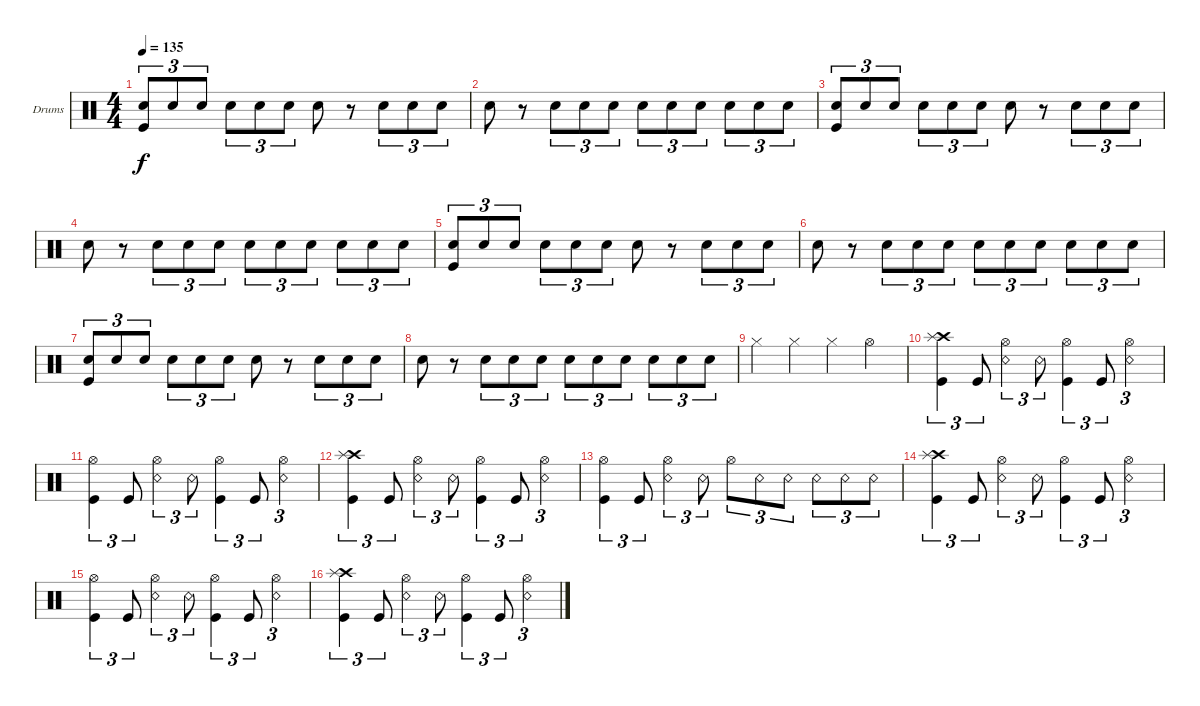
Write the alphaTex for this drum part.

\bracketExtendMode groupsimilarinstruments
\firstSystemTrackNameOrientation horizontal
\otherSystemsTrackNameOrientation horizontal
\track ("Drumkit" "Drums") {instrument percussion}
\staff {score}
\articulation defaults
\ts (4 4)
\tempo 135
\clef neutral
\scale
0.333333
\ks c
("Snare (hit) 2" "Kick (hit)").8{tu (3 2) dy f} "Snare (hit) 2".8{tu (3 2)} "Snare (hit) 2".8{tu (3 2)} "Snare (hit) 2".8{tu (3 2)} "Snare (hit) 2".8{tu (3 2)} "Snare (hit) 2".8{tu (3 2)} "Snare (hit) 2".8 r.8 "Snare (hit) 2".8{tu (3 2)} "Snare (hit) 2".8{tu (3 2)} "Snare (hit) 2".8{tu (3 2)} |
\scale
0.333333 "Snare (hit) 2".8 r.8 "Snare (hit) 2".8{tu (3 2)} "Snare (hit) 2".8{tu (3 2)} "Snare (hit) 2".8{tu (3 2)} "Snare (hit) 2".8{tu (3 2)} "Snare (hit) 2".8{tu (3 2)} "Snare (hit) 2".8{tu (3 2)} "Snare (hit) 2".8{tu (3 2)} "Snare (hit) 2".8{tu (3 2)} "Snare (hit) 2".8{tu (3 2)} |
\scale
0.333333 ("Snare (hit) 2" "Kick (hit)").8{tu (3 2)} "Snare (hit) 2".8{tu (3 2)} "Snare (hit) 2".8{tu (3 2)} "Snare (hit) 2".8{tu (3 2)} "Snare (hit) 2".8{tu (3 2)} "Snare (hit) 2".8{tu (3 2)} "Snare (hit) 2".8 r.8 "Snare (hit) 2".8{tu (3 2)} "Snare (hit) 2".8{tu (3 2)} "Snare (hit) 2".8{tu (3 2)} |
\scale
0.333333 "Snare (hit) 2".8 r.8 "Snare (hit) 2".8{tu (3 2)} "Snare (hit) 2".8{tu (3 2)} "Snare (hit) 2".8{tu (3 2)} "Snare (hit) 2".8{tu (3 2)} "Snare (hit) 2".8{tu (3 2)} "Snare (hit) 2".8{tu (3 2)} "Snare (hit) 2".8{tu (3 2)} "Snare (hit) 2".8{tu (3 2)} "Snare (hit) 2".8{tu (3 2)} |
\scale
0.333333 ("Snare (hit) 2" "Kick (hit)").8{tu (3 2)} "Snare (hit) 2".8{tu (3 2)} "Snare (hit) 2".8{tu (3 2)} "Snare (hit) 2".8{tu (3 2)} "Snare (hit) 2".8{tu (3 2)} "Snare (hit) 2".8{tu (3 2)} "Snare (hit) 2".8 r.8 "Snare (hit) 2".8{tu (3 2)} "Snare (hit) 2".8{tu (3 2)} "Snare (hit) 2".8{tu (3 2)} |
\scale
0.333333 "Snare (hit) 2".8 r.8 "Snare (hit) 2".8{tu (3 2)} "Snare (hit) 2".8{tu (3 2)} "Snare (hit) 2".8{tu (3 2)} "Snare (hit) 2".8{tu (3 2)} "Snare (hit) 2".8{tu (3 2)} "Snare (hit) 2".8{tu (3 2)} "Snare (hit) 2".8{tu (3 2)} "Snare (hit) 2".8{tu (3 2)} "Snare (hit) 2".8{tu (3 2)} |
\scale
0.333333 ("Snare (hit) 2" "Kick (hit)").8{tu (3 2)} "Snare (hit) 2".8{tu (3 2)} "Snare (hit) 2".8{tu (3 2)} "Snare (hit) 2".8{tu (3 2)} "Snare (hit) 2".8{tu (3 2)} "Snare (hit) 2".8{tu (3 2)} "Snare (hit) 2".8 r.8 "Snare (hit) 2".8{tu (3 2)} "Snare (hit) 2".8{tu (3 2)} "Snare (hit) 2".8{tu (3 2)} |
\scale
0.333333 "Snare (hit) 2".8 r.8 "Snare (hit) 2".8{tu (3 2)} "Snare (hit) 2".8{tu (3 2)} "Snare (hit) 2".8{tu (3 2)} "Snare (hit) 2".8{tu (3 2)} "Snare (hit) 2".8{tu (3 2)} "Snare (hit) 2".8{tu (3 2)} "Snare (hit) 2".8{tu (3 2)} "Snare (hit) 2".8{tu (3 2)} "Snare (hit) 2".8{tu (3 2)} |
\scale
0.333333 "Hi-Hat (closed)".4 "Hi-Hat (closed)".4 "Hi-Hat (closed)".4 "Hi-Hat (open)".4 |
\scale
0.333333 ("Kick (hit)" "Crash high (hit)" "Splash (hit)").4{tu (3 2)} "Kick (hit)".8{tu (3 2)} ("Snare (rim shot)" "Hi-Hat (open)").4{tu (3 2)} "Snare (rim shot)".8{tu (3 2)} ("Kick (hit)" "Hi-Hat (open)").4{tu (3 2)} "Kick (hit)".8{tu (3 2)} ("Snare (rim shot)" "Hi-Hat (open)").4{tu (3 2)} |
\scale
0.333333 ("Kick (hit)" "Hi-Hat (open)").4{tu (3 2)} "Kick (hit)".8{tu (3 2)} ("Snare (rim shot)" "Hi-Hat (open)").4{tu (3 2)} "Snare (rim shot)".8{tu (3 2)} ("Kick (hit)" "Hi-Hat (open)").4{tu (3 2)} "Kick (hit)".8{tu (3 2)} ("Snare (rim shot)" "Hi-Hat (open)").4{tu (3 2)} |
\scale
0.333333 ("Kick (hit)" "Crash high (hit)" "Splash (hit)").4{tu (3 2)} "Kick (hit)".8{tu (3 2)} ("Snare (rim shot)" "Hi-Hat (open)").4{tu (3 2)} "Snare (rim shot)".8{tu (3 2)} ("Kick (hit)" "Hi-Hat (open)").4{tu (3 2)} "Kick (hit)".8{tu (3 2)} ("Snare (rim shot)" "Hi-Hat (open)").4{tu (3 2)} |
\scale
0.333333 ("Kick (hit)" "Hi-Hat (open)").4{tu (3 2)} "Kick (hit)".8{tu (3 2)} ("Snare (rim shot)" "Hi-Hat (open)").4{tu (3 2)} "Snare (rim shot)".8{tu (3 2)} "Hi-Hat (open)".8{tu (3 2)} "Snare (rim shot)".8{tu (3 2)} "Snare (rim shot)".8{tu (3 2)} "Snare (rim shot)".8{tu (3 2)} "Snare (rim shot)".8{tu (3 2)} "Snare (rim shot)".8{tu (3 2)} |
\scale
0.333333 ("Kick (hit)" "Crash high (hit)" "Splash (hit)").4{tu (3 2)} "Kick (hit)".8{tu (3 2)} ("Snare (rim shot)" "Hi-Hat (open)").4{tu (3 2)} "Snare (rim shot)".8{tu (3 2)} ("Kick (hit)" "Hi-Hat (open)").4{tu (3 2)} "Kick (hit)".8{tu (3 2)} ("Snare (rim shot)" "Hi-Hat (open)").4{tu (3 2)} |
\scale
0.333333 ("Kick (hit)" "Hi-Hat (open)").4{tu (3 2)} "Kick (hit)".8{tu (3 2)} ("Snare (rim shot)" "Hi-Hat (open)").4{tu (3 2)} "Snare (rim shot)".8{tu (3 2)} ("Kick (hit)" "Hi-Hat (open)").4{tu (3 2)} "Kick (hit)".8{tu (3 2)} ("Snare (rim shot)" "Hi-Hat (open)").4{tu (3 2)} |
\scale
0.333333 ("Kick (hit)" "Crash high (hit)" "Splash (hit)").4{tu (3 2)} "Kick (hit)".8{tu (3 2)} ("Snare (rim shot)" "Hi-Hat (open)").4{tu (3 2)} "Snare (rim shot)".8{tu (3 2)} ("Kick (hit)" "Hi-Hat (open)").4{tu (3 2)} "Kick (hit)".8{tu (3 2)} ("Snare (rim shot)" "Hi-Hat (open)").4{tu (3 2)}
